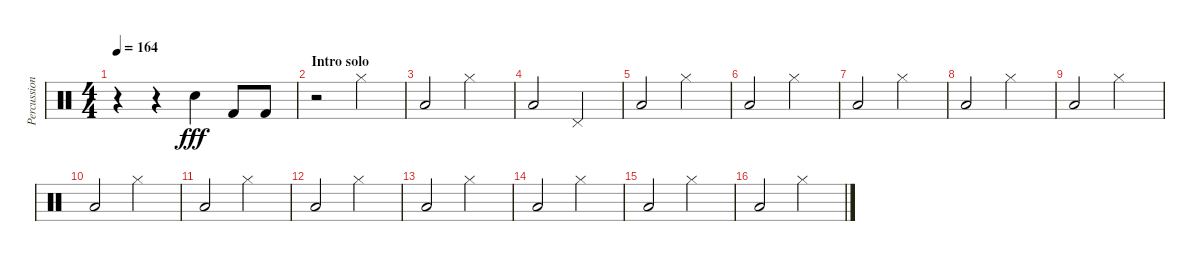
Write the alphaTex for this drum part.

\track ("Percussion" "Percussion") {instrument percussion}
\staff {score}
\articulation defaults
\ts (4 4)
\tempo 164
\clef neutral
\ks c
r.4{dy fff} r.4 "Snare (hit) 2".4 "Kick (hit) 2".8 "Kick (hit) 2".8 |
\section ("" "Intro solo")
r.2 "Hi-Hat (closed)".2 |
"Low Tom (hit)".2 "Hi-Hat (closed)".2 |
"Low Tom (hit)".2 "Pedal Hi-Hat (hit)".2 |
"Low Tom (hit)".2 "Hi-Hat (closed)".2 |
"Low Tom (hit)".2 "Hi-Hat (closed)".2 |
"Low Tom (hit)".2 "Hi-Hat (closed)".2 |
"Low Tom (hit)".2 "Hi-Hat (closed)".2 |
"Low Tom (hit)".2 "Hi-Hat (closed)".2 |
"Low Tom (hit)".2 "Hi-Hat (closed)".2 |
"Low Tom (hit)".2 "Hi-Hat (closed)".2 |
"Low Tom (hit)".2 "Hi-Hat (closed)".2 |
"Low Tom (hit)".2 "Hi-Hat (closed)".2 |
"Low Tom (hit)".2 "Hi-Hat (closed)".2 |
"Low Tom (hit)".2 "Hi-Hat (closed)".2 |
"Low Tom (hit)".2 "Hi-Hat (closed)".2
